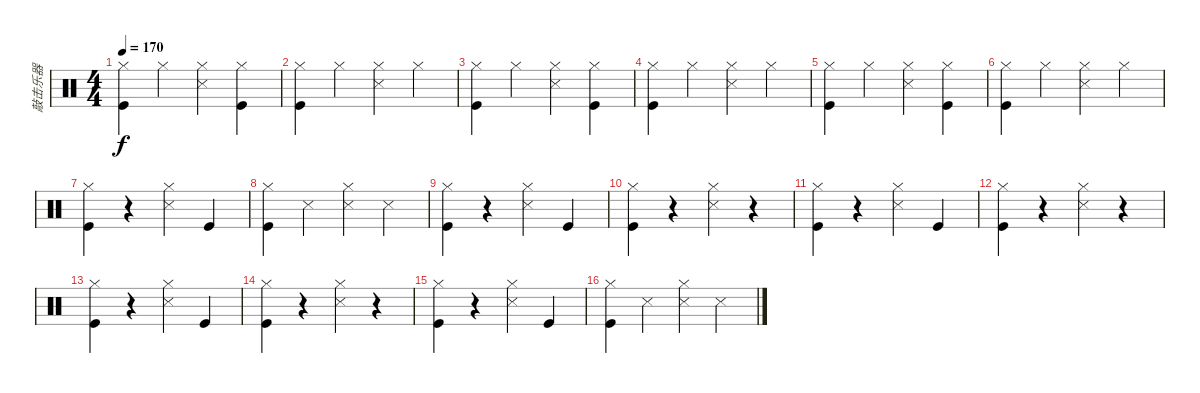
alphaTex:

\track ("敲击乐器" "敲击乐器") {instrument percussion}
\staff {score}
\articulation defaults
\ts (4 4)
\tempo 170
\clef neutral
\ks c
("Hi-Hat (closed)" "Kick (hit)").4{dy f} "Hi-Hat (closed)".4 ("Hi-Hat (closed)" "Snare (side stick) 3").4 ("Hi-Hat (closed)" "Kick (hit)").4 |
("Hi-Hat (closed)" "Kick (hit)").4 "Hi-Hat (closed)".4 ("Hi-Hat (closed)" "Snare (side stick) 3").4 "Hi-Hat (closed)".4 |
("Hi-Hat (closed)" "Kick (hit)").4 "Hi-Hat (closed)".4 ("Hi-Hat (closed)" "Snare (side stick) 3").4 ("Hi-Hat (closed)" "Kick (hit)").4 |
("Hi-Hat (closed)" "Kick (hit)").4 "Hi-Hat (closed)".4 ("Hi-Hat (closed)" "Snare (side stick) 3").4 "Hi-Hat (closed)".4 |
("Hi-Hat (closed)" "Kick (hit)").4 "Hi-Hat (closed)".4 ("Hi-Hat (closed)" "Snare (side stick) 3").4 ("Hi-Hat (closed)" "Kick (hit)").4 |
("Hi-Hat (closed)" "Kick (hit)").4 "Hi-Hat (closed)".4 ("Hi-Hat (closed)" "Snare (side stick) 3").4 "Hi-Hat (closed)".4 |
("Hi-Hat (closed)" "Kick (hit)").4 r.4 ("Hi-Hat (closed)" "Snare (side stick) 3").4 "Kick (hit)".4 |
("Hi-Hat (closed)" "Kick (hit)").4 "Snare (side stick) 3".4 ("Hi-Hat (closed)" "Snare (side stick) 3").4 "Snare (side stick) 3".4 |
("Hi-Hat (closed)" "Kick (hit)").4 r.4 ("Hi-Hat (closed)" "Snare (side stick) 3").4 "Kick (hit)".4 |
("Hi-Hat (closed)" "Kick (hit)").4 r.4 ("Hi-Hat (closed)" "Snare (side stick) 3").4 r.4 |
("Hi-Hat (closed)" "Kick (hit)").4 r.4 ("Hi-Hat (closed)" "Snare (side stick) 3").4 "Kick (hit)".4 |
("Hi-Hat (closed)" "Kick (hit)").4 r.4 ("Hi-Hat (closed)" "Snare (side stick) 3").4 r.4 |
("Hi-Hat (closed)" "Kick (hit)").4 r.4 ("Hi-Hat (closed)" "Snare (side stick) 3").4 "Kick (hit)".4 |
("Hi-Hat (closed)" "Kick (hit)").4 r.4 ("Hi-Hat (closed)" "Snare (side stick) 3").4 r.4 |
("Hi-Hat (closed)" "Kick (hit)").4 r.4 ("Hi-Hat (closed)" "Snare (side stick) 3").4 "Kick (hit)".4 |
("Hi-Hat (closed)" "Kick (hit)").4 "Snare (side stick) 3".4 ("Hi-Hat (closed)" "Snare (side stick) 3").4 "Snare (side stick) 3".4
